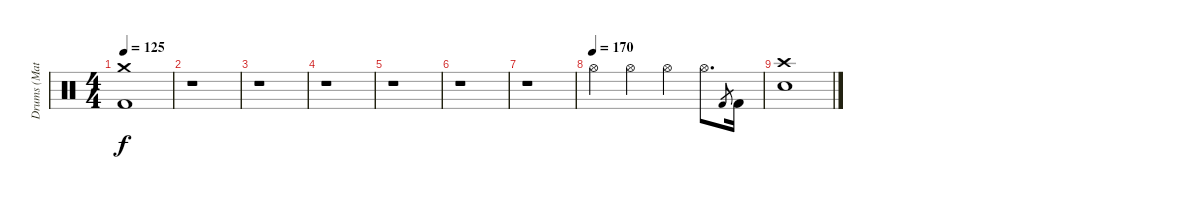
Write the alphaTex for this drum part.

\track ("Drums (Matt)" "Drums (Mat") {instrument percussion}
\staff {score}
\articulation defaults
\ts (4 4)
\tempo 125
\clef neutral
\ks c
("Crash medium (hit)" "Kick (hit) 2").1{dy f} |
r.1 |
r.1 |
r.1 |
r.1 |
r.1 |
r.1 |
\tempo (170)
"Hi-Hat (open)".4 "Hi-Hat (open)".4 "Hi-Hat (open)".4 "Hi-Hat (open)".8{d} "Kick (hit) 2".8{gr} "Kick (hit) 2".16 |
("Crash high (hit)" "Snare (hit) 2").1
